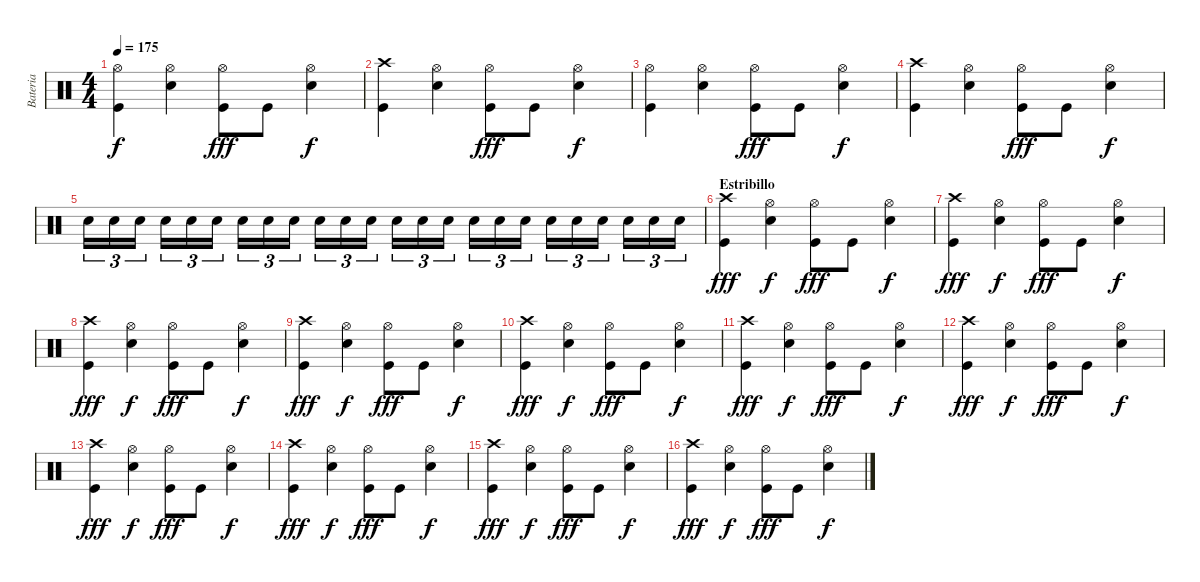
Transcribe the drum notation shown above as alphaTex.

\track ("Bateria" "Bateria") {instrument percussion}
\staff {score}
\articulation defaults
\ts (4 4)
\tempo 175
\clef neutral
\ks c
("Hi-Hat (open)" "Kick (hit)").4{dy f} ("Hi-Hat (open)" "Electric Snare (hit)").4 ("Hi-Hat (open)" "Kick (hit)").8{dy fff} "Kick (hit)".8 ("Hi-Hat (open)" "Electric Snare (hit)").4{dy f} |
("Crash high (hit)" "Kick (hit)").4 ("Hi-Hat (open)" "Electric Snare (hit)").4 ("Hi-Hat (open)" "Kick (hit)").8{dy fff} "Kick (hit)".8 ("Hi-Hat (open)" "Electric Snare (hit)").4{dy f} |
("Hi-Hat (open)" "Kick (hit)").4 ("Hi-Hat (open)" "Electric Snare (hit)").4 ("Hi-Hat (open)" "Kick (hit)").8{dy fff} "Kick (hit)".8 ("Hi-Hat (open)" "Electric Snare (hit)").4{dy f} |
("Crash high (hit)" "Kick (hit)").4 ("Hi-Hat (open)" "Electric Snare (hit)").4 ("Hi-Hat (open)" "Kick (hit)").8{dy fff} "Kick (hit)".8 ("Hi-Hat (open)" "Electric Snare (hit)").4{dy f} |
"Electric Snare (hit)".16{tu (3 2)} "Electric Snare (hit)".16{tu (3 2)} "Electric Snare (hit)".16{tu (3 2)} "Electric Snare (hit)".16{tu (3 2)} "Electric Snare (hit)".16{tu (3 2)} "Electric Snare (hit)".16{tu (3 2)} "Electric Snare (hit)".16{tu (3 2)} "Electric Snare (hit)".16{tu (3 2)} "Electric Snare (hit)".16{tu (3 2)} "Electric Snare (hit)".16{tu (3 2)} "Electric Snare (hit)".16{tu (3 2)} "Electric Snare (hit)".16{tu (3 2)} "Electric Snare (hit)".16{tu (3 2)} "Electric Snare (hit)".16{tu (3 2)} "Electric Snare (hit)".16{tu (3 2)} "Electric Snare (hit)".16{tu (3 2)} "Electric Snare (hit)".16{tu (3 2)} "Electric Snare (hit)".16{tu (3 2)} "Electric Snare (hit)".16{tu (3 2)} "Electric Snare (hit)".16{tu (3 2)} "Electric Snare (hit)".16{tu (3 2)} "Electric Snare (hit)".16{tu (3 2)} "Electric Snare (hit)".16{tu (3 2)} "Electric Snare (hit)".16{tu (3 2)} |
\section ("" "Estribillo")
("Crash high (hit)" "Kick (hit)").4{dy fff} ("Hi-Hat (open)" "Electric Snare (hit)").4{dy f} ("Hi-Hat (open)" "Kick (hit)").8{dy fff} "Kick (hit)".8 ("Hi-Hat (open)" "Electric Snare (hit)").4{dy f} |
("Crash high (hit)" "Kick (hit)").4{dy fff} ("Hi-Hat (open)" "Electric Snare (hit)").4{dy f} ("Hi-Hat (open)" "Kick (hit)").8{dy fff} "Kick (hit)".8 ("Hi-Hat (open)" "Electric Snare (hit)").4{dy f} |
("Crash high (hit)" "Kick (hit)").4{dy fff} ("Hi-Hat (open)" "Electric Snare (hit)").4{dy f} ("Hi-Hat (open)" "Kick (hit)").8{dy fff} "Kick (hit)".8 ("Hi-Hat (open)" "Electric Snare (hit)").4{dy f} |
("Crash high (hit)" "Kick (hit)").4{dy fff} ("Hi-Hat (open)" "Electric Snare (hit)").4{dy f} ("Hi-Hat (open)" "Kick (hit)").8{dy fff} "Kick (hit)".8 ("Hi-Hat (open)" "Electric Snare (hit)").4{dy f} |
("Crash high (hit)" "Kick (hit)").4{dy fff} ("Hi-Hat (open)" "Electric Snare (hit)").4{dy f} ("Hi-Hat (open)" "Kick (hit)").8{dy fff} "Kick (hit)".8 ("Hi-Hat (open)" "Electric Snare (hit)").4{dy f} |
("Crash high (hit)" "Kick (hit)").4{dy fff} ("Hi-Hat (open)" "Electric Snare (hit)").4{dy f} ("Hi-Hat (open)" "Kick (hit)").8{dy fff} "Kick (hit)".8 ("Hi-Hat (open)" "Electric Snare (hit)").4{dy f} |
("Crash high (hit)" "Kick (hit)").4{dy fff} ("Hi-Hat (open)" "Electric Snare (hit)").4{dy f} ("Hi-Hat (open)" "Kick (hit)").8{dy fff} "Kick (hit)".8 ("Hi-Hat (open)" "Electric Snare (hit)").4{dy f} |
("Crash high (hit)" "Kick (hit)").4{dy fff} ("Hi-Hat (open)" "Electric Snare (hit)").4{dy f} ("Hi-Hat (open)" "Kick (hit)").8{dy fff} "Kick (hit)".8 ("Hi-Hat (open)" "Electric Snare (hit)").4{dy f} |
("Crash high (hit)" "Kick (hit)").4{dy fff} ("Hi-Hat (open)" "Electric Snare (hit)").4{dy f} ("Hi-Hat (open)" "Kick (hit)").8{dy fff} "Kick (hit)".8 ("Hi-Hat (open)" "Electric Snare (hit)").4{dy f} |
("Crash high (hit)" "Kick (hit)").4{dy fff} ("Hi-Hat (open)" "Electric Snare (hit)").4{dy f} ("Hi-Hat (open)" "Kick (hit)").8{dy fff} "Kick (hit)".8 ("Hi-Hat (open)" "Electric Snare (hit)").4{dy f} |
("Crash high (hit)" "Kick (hit)").4{dy fff} ("Hi-Hat (open)" "Electric Snare (hit)").4{dy f} ("Hi-Hat (open)" "Kick (hit)").8{dy fff} "Kick (hit)".8 ("Hi-Hat (open)" "Electric Snare (hit)").4{dy f}
